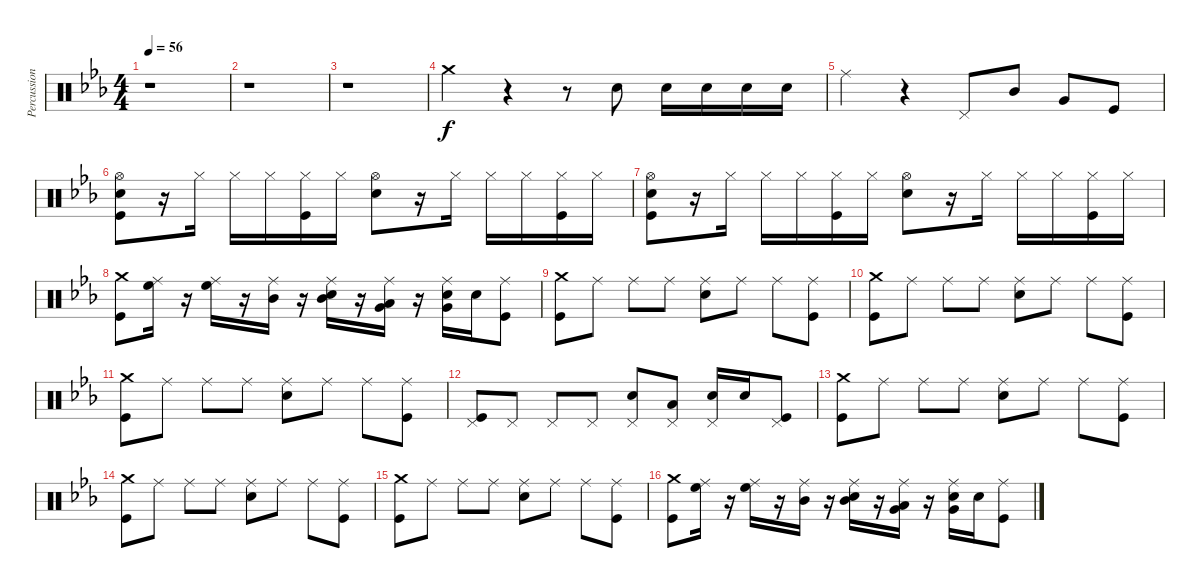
\track ("Percussion" "Percussion") {instrument percussion}
\staff {score}
\articulation defaults
\ts (4 4)
\tempo 56
\clef neutral
\ks cminor
r.1{dy f} |
r.1 |
r.1 |
"Crash medium (hit)".4 r.4 r.8 "Snare (hit) 2".8 "Snare (hit) 2".16 "Snare (hit) 2".16 "Snare (hit) 2".16 "Snare (hit) 2".16 |
"Ride (middle)".4 r.4 "Pedal Hi-Hat (hit)".8 "Mid Tom (hit)".8 "Very Low Tom (hit)".8 "Kick (hit)".8 |
("Hi-Hat (open)" "Kick (hit)" "Snare (hit) 2").8 r.16 "Hi-Hat (closed)".16 "Hi-Hat (closed)".16 "Hi-Hat (closed)".16 ("Kick (hit)" "Hi-Hat (closed)").16 "Hi-Hat (closed)".16 ("Snare (hit) 2" "Hi-Hat (open)").8 r.16 "Hi-Hat (closed)".16 "Hi-Hat (closed)".16 "Hi-Hat (closed)".16 ("Kick (hit)" "Hi-Hat (closed)").16 "Hi-Hat (closed)".16 |
("Hi-Hat (open)" "Kick (hit)" "Snare (hit) 2").8 r.16 "Hi-Hat (closed)".16 "Hi-Hat (closed)".16 "Hi-Hat (closed)".16 ("Kick (hit)" "Hi-Hat (closed)").16 "Hi-Hat (closed)".16 ("Snare (hit) 2" "Hi-Hat (open)").8 r.16 "Hi-Hat (closed)".16 "Hi-Hat (closed)".16 "Hi-Hat (closed)".16 ("Kick (hit)" "Hi-Hat (closed)").16 "Hi-Hat (closed)".16 |
("Crash medium (hit)" "Kick (hit)").8 ("High Floor Tom (hit)" "Ride (middle)").16 r.16 ("High Floor Tom (hit)" "Ride (middle)").16 r.16 ("Mid Tom (hit)" "Ride (middle)").16 r.16 ("Mid Tom (hit)" "Snare (hit) 2" "Ride (middle)").16 r.16 ("Very Low Tom (hit)" "Low Floor Tom (hit)" "Ride (middle)").16 r.16 ("Very Low Tom (hit)" "Snare (hit) 2" "Ride (middle)").16 "Snare (hit) 2".16 ("Kick (hit)" "Ride (middle)").8 |
("Crash medium (hit)" "Kick (hit)").8 "Ride (middle)".8 "Ride (middle)".8 "Ride (middle)".8 ("Snare (hit) 2" "Ride (middle)").8 "Ride (middle)".8 "Ride (middle)".8 ("Kick (hit)" "Ride (middle)").8 |
("Crash medium (hit)" "Kick (hit)").8 "Ride (middle)".8 "Ride (middle)".8 "Ride (middle)".8 ("Snare (hit) 2" "Ride (middle)").8 "Ride (middle)".8 "Ride (middle)".8 ("Kick (hit)" "Ride (middle)").8 |
("Crash medium (hit)" "Kick (hit)").8 "Ride (middle)".8 "Ride (middle)".8 "Ride (middle)".8 ("Snare (hit) 2" "Ride (middle)").8 "Ride (middle)".8 "Ride (middle)".8 ("Kick (hit)" "Ride (middle)").8 |
("Pedal Hi-Hat (hit)" "Kick (hit)").8 "Pedal Hi-Hat (hit)".8 "Pedal Hi-Hat (hit)".8 "Pedal Hi-Hat (hit)".8 ("Snare (hit) 2" "Pedal Hi-Hat (hit)").8 ("Low Floor Tom (hit)" "Pedal Hi-Hat (hit)").8 ("Snare (hit) 2" "Pedal Hi-Hat (hit)").16 "Snare (hit) 2".16 ("Kick (hit)" "Pedal Hi-Hat (hit)").8 |
("Crash medium (hit)" "Kick (hit)").8 "Ride (middle)".8 "Ride (middle)".8 "Ride (middle)".8 ("Snare (hit) 2" "Ride (middle)").8 "Ride (middle)".8 "Ride (middle)".8 ("Kick (hit)" "Ride (middle)").8 |
("Crash medium (hit)" "Kick (hit)").8 "Ride (middle)".8 "Ride (middle)".8 "Ride (middle)".8 ("Snare (hit) 2" "Ride (middle)").8 "Ride (middle)".8 "Ride (middle)".8 ("Kick (hit)" "Ride (middle)").8 |
("Crash medium (hit)" "Kick (hit)").8 "Ride (middle)".8 "Ride (middle)".8 "Ride (middle)".8 ("Snare (hit) 2" "Ride (middle)").8 "Ride (middle)".8 "Ride (middle)".8 ("Kick (hit)" "Ride (middle)").8 |
("Crash medium (hit)" "Kick (hit)").8 ("High Floor Tom (hit)" "Ride (middle)").16 r.16 ("High Floor Tom (hit)" "Ride (middle)").16 r.16 ("Mid Tom (hit)" "Ride (middle)").16 r.16 ("Mid Tom (hit)" "Snare (hit) 2" "Ride (middle)").16 r.16 ("Very Low Tom (hit)" "Low Floor Tom (hit)" "Ride (middle)").16 r.16 ("Very Low Tom (hit)" "Snare (hit) 2" "Ride (middle)").16 "Snare (hit) 2".16 ("Kick (hit)" "Ride (middle)").8
